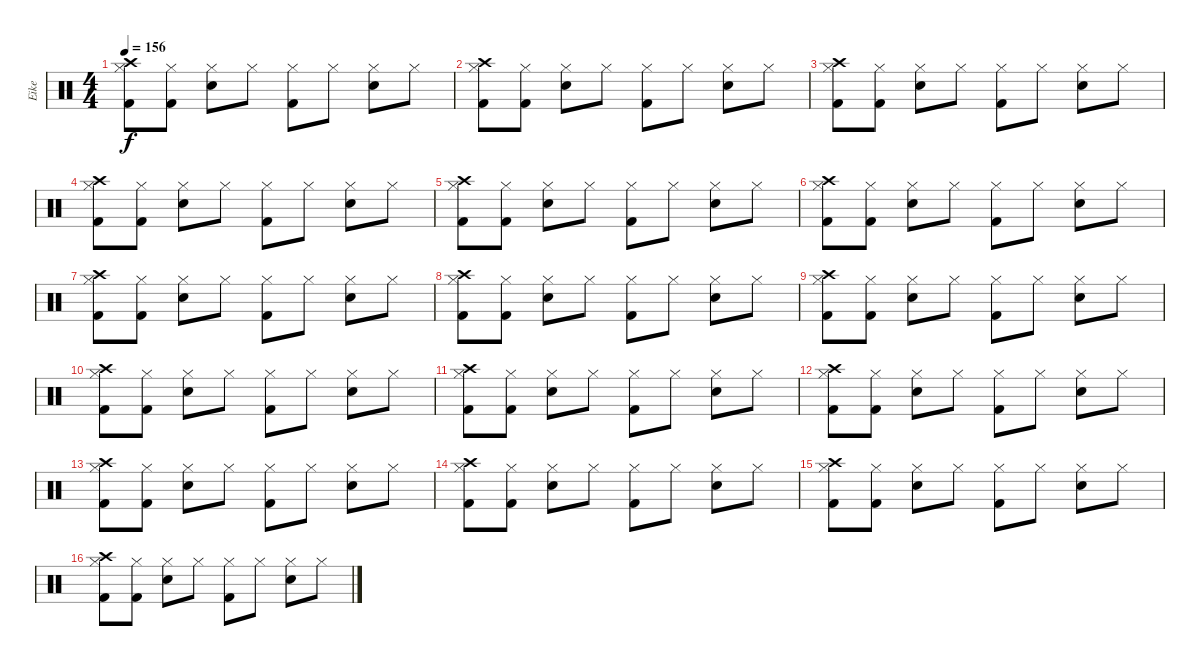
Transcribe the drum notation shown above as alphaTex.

\track ("Eike" "Eike") {instrument percussion}
\staff {score}
\articulation defaults
\ts (4 4)
\tempo 156
\clef neutral
\ks c
("Hi-Hat (closed)" "Kick (hit) 2" "Crash high (hit)").8{dy f} ("Hi-Hat (closed)" "Kick (hit) 2").8 ("Hi-Hat (closed)" "Snare (hit) 2").8 "Hi-Hat (closed)".8 ("Hi-Hat (closed)" "Kick (hit) 2").8 "Hi-Hat (closed)".8 ("Hi-Hat (closed)" "Snare (hit) 2").8 "Hi-Hat (closed)".8 |
("Hi-Hat (closed)" "Kick (hit) 2" "Crash high (hit)").8 ("Hi-Hat (closed)" "Kick (hit) 2").8 ("Hi-Hat (closed)" "Snare (hit) 2").8 "Hi-Hat (closed)".8 ("Hi-Hat (closed)" "Kick (hit) 2").8 "Hi-Hat (closed)".8 ("Hi-Hat (closed)" "Snare (hit) 2").8 "Hi-Hat (closed)".8 |
("Hi-Hat (closed)" "Kick (hit) 2" "Crash high (hit)").8 ("Hi-Hat (closed)" "Kick (hit) 2").8 ("Hi-Hat (closed)" "Snare (hit) 2").8 "Hi-Hat (closed)".8 ("Hi-Hat (closed)" "Kick (hit) 2").8 "Hi-Hat (closed)".8 ("Hi-Hat (closed)" "Snare (hit) 2").8 "Hi-Hat (closed)".8 |
("Hi-Hat (closed)" "Kick (hit) 2" "Crash high (hit)").8 ("Hi-Hat (closed)" "Kick (hit) 2").8 ("Hi-Hat (closed)" "Snare (hit) 2").8 "Hi-Hat (closed)".8 ("Hi-Hat (closed)" "Kick (hit) 2").8 "Hi-Hat (closed)".8 ("Hi-Hat (closed)" "Snare (hit) 2").8 "Hi-Hat (closed)".8 |
("Hi-Hat (closed)" "Kick (hit) 2" "Crash high (hit)").8 ("Hi-Hat (closed)" "Kick (hit) 2").8 ("Hi-Hat (closed)" "Snare (hit) 2").8 "Hi-Hat (closed)".8 ("Hi-Hat (closed)" "Kick (hit) 2").8 "Hi-Hat (closed)".8 ("Hi-Hat (closed)" "Snare (hit) 2").8 "Hi-Hat (closed)".8 |
("Hi-Hat (closed)" "Kick (hit) 2" "Crash high (hit)").8 ("Hi-Hat (closed)" "Kick (hit) 2").8 ("Hi-Hat (closed)" "Snare (hit) 2").8 "Hi-Hat (closed)".8 ("Hi-Hat (closed)" "Kick (hit) 2").8 "Hi-Hat (closed)".8 ("Hi-Hat (closed)" "Snare (hit) 2").8 "Hi-Hat (closed)".8 |
("Hi-Hat (closed)" "Kick (hit) 2" "Crash high (hit)").8 ("Hi-Hat (closed)" "Kick (hit) 2").8 ("Hi-Hat (closed)" "Snare (hit) 2").8 "Hi-Hat (closed)".8 ("Hi-Hat (closed)" "Kick (hit) 2").8 "Hi-Hat (closed)".8 ("Hi-Hat (closed)" "Snare (hit) 2").8 "Hi-Hat (closed)".8 |
("Hi-Hat (closed)" "Kick (hit) 2" "Crash high (hit)").8 ("Hi-Hat (closed)" "Kick (hit) 2").8 ("Hi-Hat (closed)" "Snare (hit) 2").8 "Hi-Hat (closed)".8 ("Hi-Hat (closed)" "Kick (hit) 2").8 "Hi-Hat (closed)".8 ("Hi-Hat (closed)" "Snare (hit) 2").8 "Hi-Hat (closed)".8 |
("Hi-Hat (closed)" "Kick (hit) 2" "Crash high (hit)").8 ("Hi-Hat (closed)" "Kick (hit) 2").8 ("Hi-Hat (closed)" "Snare (hit) 2").8 "Hi-Hat (closed)".8 ("Hi-Hat (closed)" "Kick (hit) 2").8 "Hi-Hat (closed)".8 ("Hi-Hat (closed)" "Snare (hit) 2").8 "Hi-Hat (closed)".8 |
("Hi-Hat (closed)" "Kick (hit) 2" "Crash high (hit)").8 ("Hi-Hat (closed)" "Kick (hit) 2").8 ("Hi-Hat (closed)" "Snare (hit) 2").8 "Hi-Hat (closed)".8 ("Hi-Hat (closed)" "Kick (hit) 2").8 "Hi-Hat (closed)".8 ("Hi-Hat (closed)" "Snare (hit) 2").8 "Hi-Hat (closed)".8 |
("Hi-Hat (closed)" "Kick (hit) 2" "Crash high (hit)").8 ("Hi-Hat (closed)" "Kick (hit) 2").8 ("Hi-Hat (closed)" "Snare (hit) 2").8 "Hi-Hat (closed)".8 ("Hi-Hat (closed)" "Kick (hit) 2").8 "Hi-Hat (closed)".8 ("Hi-Hat (closed)" "Snare (hit) 2").8 "Hi-Hat (closed)".8 |
("Hi-Hat (closed)" "Kick (hit) 2" "Crash high (hit)").8 ("Hi-Hat (closed)" "Kick (hit) 2").8 ("Hi-Hat (closed)" "Snare (hit) 2").8 "Hi-Hat (closed)".8 ("Hi-Hat (closed)" "Kick (hit) 2").8 "Hi-Hat (closed)".8 ("Hi-Hat (closed)" "Snare (hit) 2").8 "Hi-Hat (closed)".8 |
("Hi-Hat (closed)" "Kick (hit) 2" "Crash high (hit)").8 ("Hi-Hat (closed)" "Kick (hit) 2").8 ("Hi-Hat (closed)" "Snare (hit) 2").8 "Hi-Hat (closed)".8 ("Hi-Hat (closed)" "Kick (hit) 2").8 "Hi-Hat (closed)".8 ("Hi-Hat (closed)" "Snare (hit) 2").8 "Hi-Hat (closed)".8 |
("Hi-Hat (closed)" "Kick (hit) 2" "Crash high (hit)").8 ("Hi-Hat (closed)" "Kick (hit) 2").8 ("Hi-Hat (closed)" "Snare (hit) 2").8 "Hi-Hat (closed)".8 ("Hi-Hat (closed)" "Kick (hit) 2").8 "Hi-Hat (closed)".8 ("Hi-Hat (closed)" "Snare (hit) 2").8 "Hi-Hat (closed)".8 |
("Hi-Hat (closed)" "Kick (hit) 2" "Crash high (hit)").8 ("Hi-Hat (closed)" "Kick (hit) 2").8 ("Hi-Hat (closed)" "Snare (hit) 2").8 "Hi-Hat (closed)".8 ("Hi-Hat (closed)" "Kick (hit) 2").8 "Hi-Hat (closed)".8 ("Hi-Hat (closed)" "Snare (hit) 2").8 "Hi-Hat (closed)".8 |
("Hi-Hat (closed)" "Kick (hit) 2" "Crash high (hit)").8 ("Hi-Hat (closed)" "Kick (hit) 2").8 ("Hi-Hat (closed)" "Snare (hit) 2").8 "Hi-Hat (closed)".8 ("Hi-Hat (closed)" "Kick (hit) 2").8 "Hi-Hat (closed)".8 ("Hi-Hat (closed)" "Snare (hit) 2").8 "Hi-Hat (closed)".8
